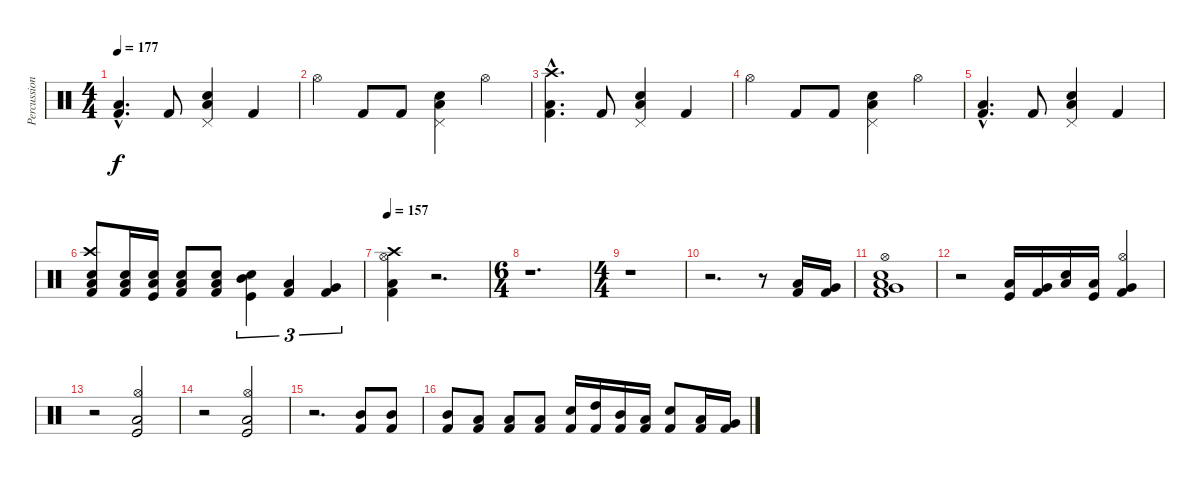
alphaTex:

\track ("Percussions" "Percussion") {instrument percussion}
\staff {score}
\articulation defaults
\ts (4 4)
\tempo 177
\clef neutral
\ks c
("Low Tom (hit)"{hac} "Kick (hit) 2"{hac}).4{d dy f} "Kick (hit) 2".8 ("Pedal Hi-Hat (hit)" "Snare (hit) 2" "Low Floor Tom (hit)").4 "Kick (hit) 2".4 |
"Hi-Hat (open)".4 "Kick (hit) 2".8 "Kick (hit) 2".8 ("Low Tom (hit)" "Snare (hit) 2" "Pedal Hi-Hat (hit)").4 "Hi-Hat (open)".4 |
("Low Tom (hit)"{hac} "Crash high (hit)"{hac} "Kick (hit) 2"{hac}).4{d} "Kick (hit) 2".8 ("Pedal Hi-Hat (hit)" "Snare (hit) 2" "Low Floor Tom (hit)").4 "Kick (hit) 2".4 |
"Hi-Hat (open)".4 "Kick (hit) 2".8 "Kick (hit) 2".8 ("Low Tom (hit)" "Snare (hit) 2" "Pedal Hi-Hat (hit)").4 "Hi-Hat (open)".4 |
("Low Tom (hit)"{hac} "Kick (hit) 2"{hac}).4{d} "Kick (hit) 2".8 ("Pedal Hi-Hat (hit)" "Snare (hit) 2" "Low Floor Tom (hit)").4 "Kick (hit) 2".4 |
("Crash high (hit)" "Low Tom (hit)" "Electric Snare (hit)" "Kick (hit) 2").8 ("Low Tom (hit)" "Electric Snare (hit)" "Kick (hit) 2").16 ("Low Tom (hit)" "Electric Snare (hit)" "Kick (hit)").16 ("Low Floor Tom (hit)" "Electric Snare (hit)" "Kick (hit) 2").8 ("Low Tom (hit)" "Electric Snare (hit)" "Kick (hit) 2").8 ("Electric Snare (hit)" "Mid Tom (hit)" "Kick (hit)").4{tu (3 2)} ("Low Tom (hit)" "Kick (hit) 2").4{tu (3 2)} ("Very Low Tom (hit)" "Kick (hit) 2").4{tu (3 2)} |
\tempo 157
("Hi-Hat (open)" "Low Tom (hit)" "Crash high (hit)" "Kick (hit) 2").4 r.2{d} |
\ts (6 4)
r.1{d} |
\ts (4 4)
r.1 |
r.2{d} r.8 ("Low Tom (hit)" "Kick (hit) 2").16 ("Very Low Tom (hit)" "Kick (hit) 2").16 |
("Hi-Hat (open)" "Snare (hit) 2" "Low Tom (hit)" "Kick (hit) 2" "Very Low Tom (hit)").1 |
r.2 ("Low Tom (hit)" "Kick (hit)").16 ("Very Low Tom (hit)" "Kick (hit) 2").16 ("Low Floor Tom (hit)" "Electric Snare (hit)").16 ("Low Tom (hit)" "Kick (hit)").16 ("Very Low Tom (hit)" "Kick (hit) 2" "Hi-Hat (open)").4 |
r.2 ("Hi-Hat (open)" "Kick (hit)" "Low Tom (hit)").2 |
r.2 ("Hi-Hat (open)" "Kick (hit)" "Low Tom (hit)").2 |
r.2{d} ("Mid Tom (hit)" "Kick (hit) 2").8{volume 8} ("Mid Tom (hit)" "Kick (hit) 2").8{volume 10} |
("Mid Tom (hit)" "Kick (hit) 2").8{volume 11} ("Low Tom (hit)" "Kick (hit) 2").8{volume 12} ("Low Tom (hit)" "Kick (hit) 2").8{volume 13} ("Low Tom (hit)" "Kick (hit) 2").8 ("Electric Snare (hit)" "Kick (hit) 2").16 ("High Tom (hit)" "Kick (hit) 2").16 ("Mid Tom (hit)" "Kick (hit) 2").16 ("Low Tom (hit)" "Kick (hit) 2").16 ("Electric Snare (hit)" "Kick (hit) 2").8 ("Low Tom (hit)" "Kick (hit) 2").16 ("Very Low Tom (hit)" "Kick (hit) 2").16
